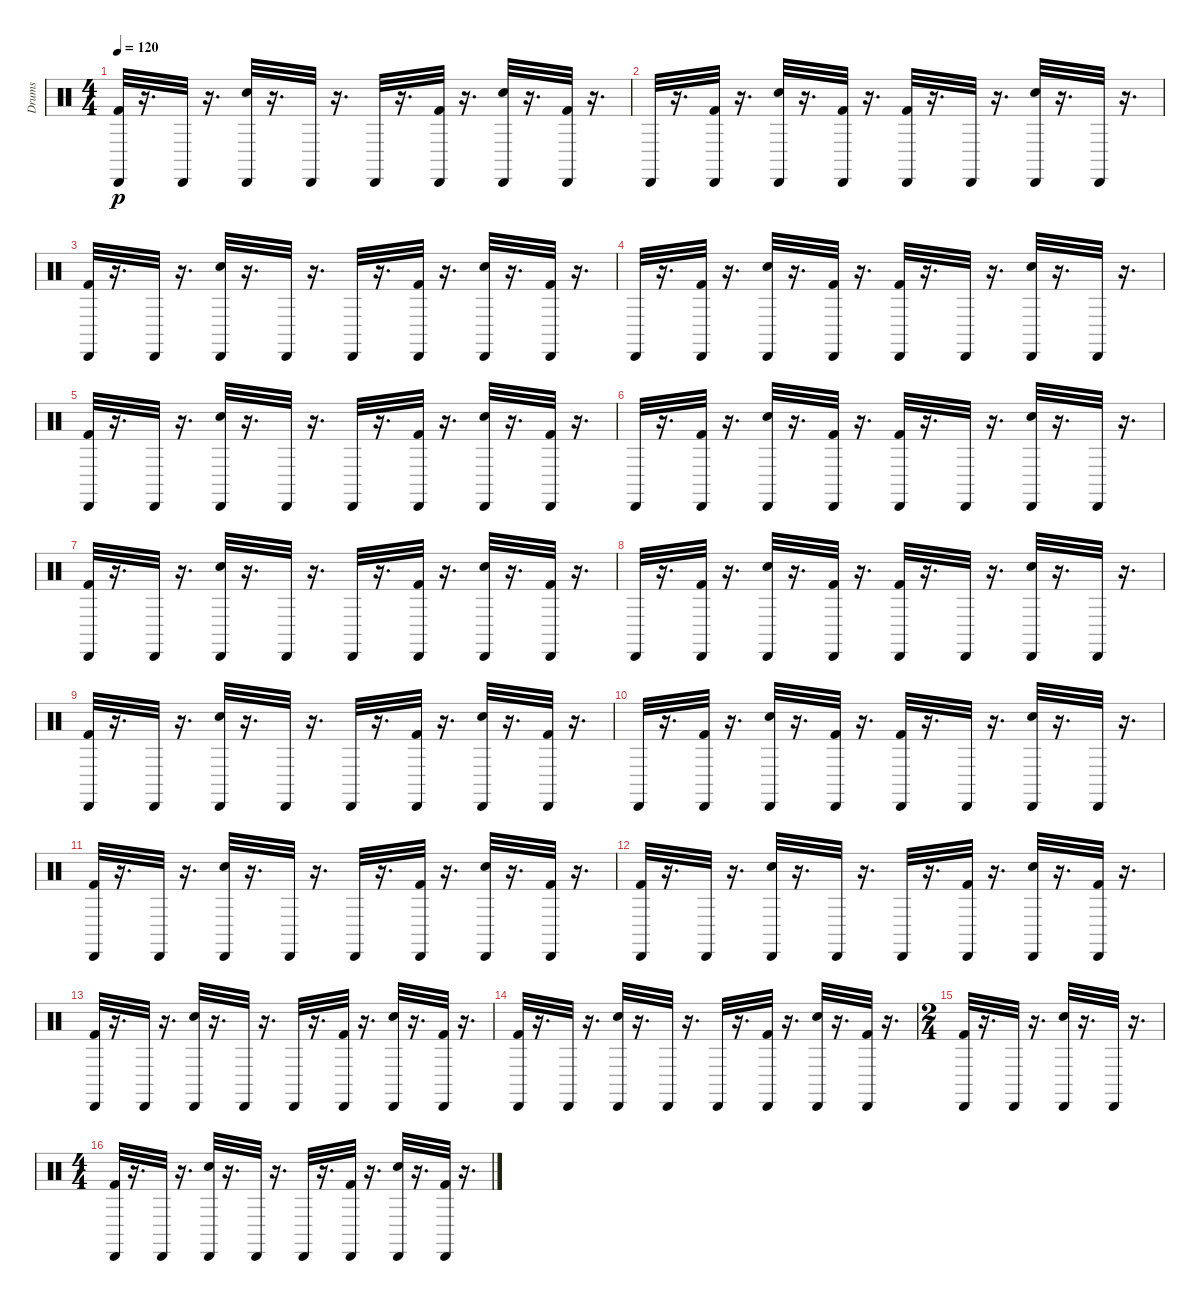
\track ("Drums" "Drums") {instrument percussion}
\staff {score}
\articulation defaults
\ts (4 4)
\tempo 120
\clef neutral
\ks c
("Cabasa (hit)" "Kick (hit) 2").32{dy p} r.16{d} "Cabasa (hit)".32 r.16{d} ("Cabasa (hit)" "Electric Snare (hit)").32 r.16{d} "Cabasa (hit)".32 r.16{d} "Cabasa (hit)".32 r.16{d} ("Cabasa (hit)" "Kick (hit) 2").32 r.16{d} ("Cabasa (hit)" "Electric Snare (hit)").32 r.16{d} ("Cabasa (hit)" "Kick (hit) 2").32 r.16{d} |
"Cabasa (hit)".32 r.16{d} ("Cabasa (hit)" "Kick (hit) 2").32 r.16{d} ("Cabasa (hit)" "Electric Snare (hit)").32 r.16{d} ("Cabasa (hit)" "Kick (hit) 2").32 r.16{d} ("Cabasa (hit)" "Kick (hit) 2").32 r.16{d} "Cabasa (hit)".32 r.16{d} ("Cabasa (hit)" "Electric Snare (hit)").32 r.16{d} "Cabasa (hit)".32 r.16{d} |
("Cabasa (hit)" "Kick (hit) 2").32 r.16{d} "Cabasa (hit)".32 r.16{d} ("Cabasa (hit)" "Electric Snare (hit)").32 r.16{d} "Cabasa (hit)".32 r.16{d} "Cabasa (hit)".32 r.16{d} ("Cabasa (hit)" "Kick (hit) 2").32 r.16{d} ("Cabasa (hit)" "Electric Snare (hit)").32 r.16{d} ("Cabasa (hit)" "Kick (hit) 2").32 r.16{d} |
"Cabasa (hit)".32 r.16{d} ("Cabasa (hit)" "Kick (hit) 2").32 r.16{d} ("Cabasa (hit)" "Electric Snare (hit)").32 r.16{d} ("Cabasa (hit)" "Kick (hit) 2").32 r.16{d} ("Cabasa (hit)" "Kick (hit) 2").32 r.16{d} "Cabasa (hit)".32 r.16{d} ("Cabasa (hit)" "Electric Snare (hit)").32 r.16{d} "Cabasa (hit)".32 r.16{d} |
("Cabasa (hit)" "Kick (hit) 2").32 r.16{d} "Cabasa (hit)".32 r.16{d} ("Cabasa (hit)" "Electric Snare (hit)").32 r.16{d} "Cabasa (hit)".32 r.16{d} "Cabasa (hit)".32 r.16{d} ("Cabasa (hit)" "Kick (hit) 2").32 r.16{d} ("Cabasa (hit)" "Electric Snare (hit)").32 r.16{d} ("Cabasa (hit)" "Kick (hit) 2").32 r.16{d} |
"Cabasa (hit)".32 r.16{d} ("Cabasa (hit)" "Kick (hit) 2").32 r.16{d} ("Cabasa (hit)" "Electric Snare (hit)").32 r.16{d} ("Cabasa (hit)" "Kick (hit) 2").32 r.16{d} ("Cabasa (hit)" "Kick (hit) 2").32 r.16{d} "Cabasa (hit)".32 r.16{d} ("Cabasa (hit)" "Electric Snare (hit)").32 r.16{d} "Cabasa (hit)".32 r.16{d} |
("Cabasa (hit)" "Kick (hit) 2").32 r.16{d} "Cabasa (hit)".32 r.16{d} ("Cabasa (hit)" "Electric Snare (hit)").32 r.16{d} "Cabasa (hit)".32 r.16{d} "Cabasa (hit)".32 r.16{d} ("Cabasa (hit)" "Kick (hit) 2").32 r.16{d} ("Cabasa (hit)" "Electric Snare (hit)").32 r.16{d} ("Cabasa (hit)" "Kick (hit) 2").32 r.16{d} |
"Cabasa (hit)".32 r.16{d} ("Cabasa (hit)" "Kick (hit) 2").32 r.16{d} ("Cabasa (hit)" "Electric Snare (hit)").32 r.16{d} ("Cabasa (hit)" "Kick (hit) 2").32 r.16{d} ("Cabasa (hit)" "Kick (hit) 2").32 r.16{d} "Cabasa (hit)".32 r.16{d} ("Cabasa (hit)" "Electric Snare (hit)").32 r.16{d} "Cabasa (hit)".32 r.16{d} |
("Cabasa (hit)" "Kick (hit) 2").32 r.16{d} "Cabasa (hit)".32 r.16{d} ("Cabasa (hit)" "Electric Snare (hit)").32 r.16{d} "Cabasa (hit)".32 r.16{d} "Cabasa (hit)".32 r.16{d} ("Cabasa (hit)" "Kick (hit) 2").32 r.16{d} ("Cabasa (hit)" "Electric Snare (hit)").32 r.16{d} ("Cabasa (hit)" "Kick (hit) 2").32 r.16{d} |
"Cabasa (hit)".32 r.16{d} ("Cabasa (hit)" "Kick (hit) 2").32 r.16{d} ("Cabasa (hit)" "Electric Snare (hit)").32 r.16{d} ("Cabasa (hit)" "Kick (hit) 2").32 r.16{d} ("Cabasa (hit)" "Kick (hit) 2").32 r.16{d} "Cabasa (hit)".32 r.16{d} ("Cabasa (hit)" "Electric Snare (hit)").32 r.16{d} "Cabasa (hit)".32 r.16{d} |
("Cabasa (hit)" "Kick (hit) 2").32 r.16{d} "Cabasa (hit)".32 r.16{d} ("Cabasa (hit)" "Electric Snare (hit)").32 r.16{d} "Cabasa (hit)".32 r.16{d} "Cabasa (hit)".32 r.16{d} ("Cabasa (hit)" "Kick (hit) 2").32 r.16{d} ("Cabasa (hit)" "Electric Snare (hit)").32 r.16{d} ("Cabasa (hit)" "Kick (hit) 2").32 r.16{d} |
("Cabasa (hit)" "Kick (hit) 2").32 r.16{d} "Cabasa (hit)".32 r.16{d} ("Cabasa (hit)" "Electric Snare (hit)").32 r.16{d} "Cabasa (hit)".32 r.16{d} "Cabasa (hit)".32 r.16{d} ("Cabasa (hit)" "Kick (hit) 2").32 r.16{d} ("Cabasa (hit)" "Electric Snare (hit)").32 r.16{d} ("Cabasa (hit)" "Kick (hit) 2").32 r.16{d} |
("Cabasa (hit)" "Kick (hit) 2").32 r.16{d} "Cabasa (hit)".32 r.16{d} ("Cabasa (hit)" "Electric Snare (hit)").32 r.16{d} "Cabasa (hit)".32 r.16{d} "Cabasa (hit)".32 r.16{d} ("Cabasa (hit)" "Kick (hit) 2").32 r.16{d} ("Cabasa (hit)" "Electric Snare (hit)").32 r.16{d} ("Cabasa (hit)" "Kick (hit) 2").32 r.16{d} |
("Cabasa (hit)" "Kick (hit) 2").32 r.16{d} "Cabasa (hit)".32 r.16{d} ("Cabasa (hit)" "Electric Snare (hit)").32 r.16{d} "Cabasa (hit)".32 r.16{d} "Cabasa (hit)".32 r.16{d} ("Cabasa (hit)" "Kick (hit) 2").32 r.16{d} ("Cabasa (hit)" "Electric Snare (hit)").32 r.16{d} ("Cabasa (hit)" "Kick (hit) 2").32 r.16{d} |
\ts (2 4)
("Cabasa (hit)" "Kick (hit) 2").32 r.16{d} "Cabasa (hit)".32 r.16{d} ("Cabasa (hit)" "Electric Snare (hit)").32 r.16{d} "Cabasa (hit)".32 r.16{d} |
\ts (4 4)
("Cabasa (hit)" "Kick (hit) 2").32 r.16{d} "Cabasa (hit)".32 r.16{d} ("Cabasa (hit)" "Electric Snare (hit)").32 r.16{d} "Cabasa (hit)".32 r.16{d} "Cabasa (hit)".32 r.16{d} ("Cabasa (hit)" "Kick (hit) 2").32 r.16{d} ("Cabasa (hit)" "Electric Snare (hit)").32 r.16{d} ("Cabasa (hit)" "Kick (hit) 2").32 r.16{d}
